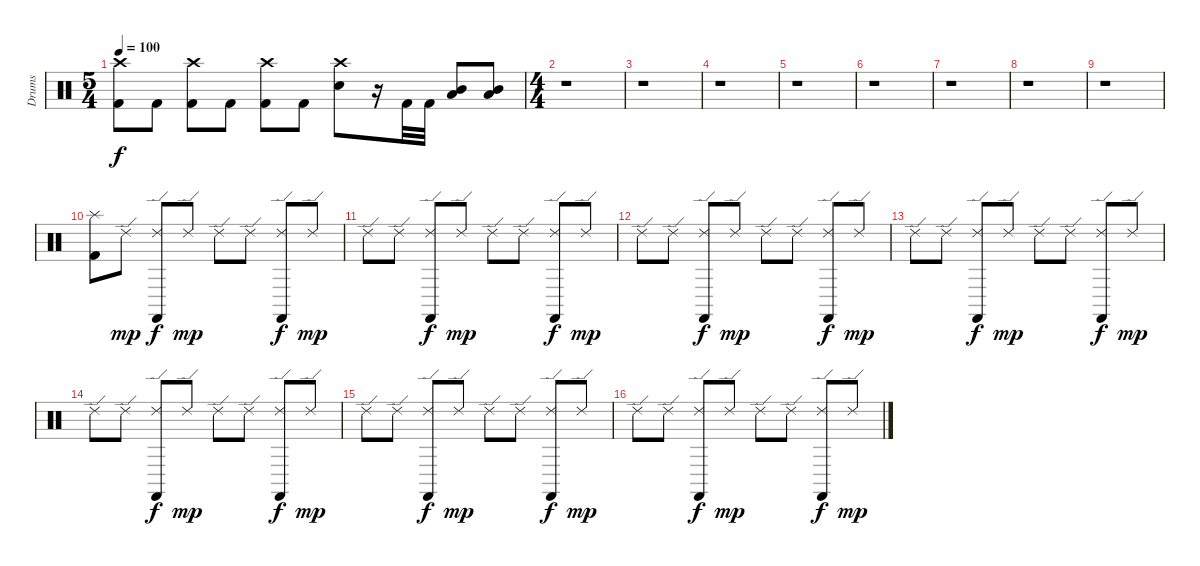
\track ("Drums" "Drums") {instrument percussion}
\staff {score}
\articulation defaults
\ts (5 4)
\tempo 100
\clef neutral
\ks c
("Crash high (hit)" "Kick (hit) 2").8{dy f} "Kick (hit) 2".8 ("Crash high (hit)" "Kick (hit) 2").8 "Kick (hit) 2".8 ("Crash high (hit)" "Kick (hit) 2").8 "Kick (hit) 2".8 ("Crash high (hit)" "Snare (hit) 2").8 r.16 "Kick (hit) 2".32 "Kick (hit) 2".32 ("Mid Tom (hit)" "Low Tom (hit)").8 ("Mid Tom (hit)" "Low Tom (hit)").8 |
\ts (4 4)
r.1 |
r.1 |
r.1 |
r.1 |
r.1 |
r.1 |
r.1 |
r.1 |
("Splash (hit)" "Kick (hit) 2").8 "Ride (edge) 2".8{dy mp} ("Ride (edge) 2" "Castanets (hit)").8{dy f} "Ride (edge) 2".8{dy mp} "Ride (edge) 2".8 "Ride (edge) 2".8 ("Ride (edge) 2" "Castanets (hit)").8{dy f} "Ride (edge) 2".8{dy mp} |
"Ride (edge) 2".8 "Ride (edge) 2".8 ("Ride (edge) 2" "Castanets (hit)").8{dy f} "Ride (edge) 2".8{dy mp} "Ride (edge) 2".8 "Ride (edge) 2".8 ("Ride (edge) 2" "Castanets (hit)").8{dy f} "Ride (edge) 2".8{dy mp} |
"Ride (edge) 2".8 "Ride (edge) 2".8 ("Ride (edge) 2" "Castanets (hit)").8{dy f} "Ride (edge) 2".8{dy mp} "Ride (edge) 2".8 "Ride (edge) 2".8 ("Ride (edge) 2" "Castanets (hit)").8{dy f} "Ride (edge) 2".8{dy mp} |
"Ride (edge) 2".8 "Ride (edge) 2".8 ("Ride (edge) 2" "Castanets (hit)").8{dy f} "Ride (edge) 2".8{dy mp} "Ride (edge) 2".8 "Ride (edge) 2".8 ("Ride (edge) 2" "Castanets (hit)").8{dy f} "Ride (edge) 2".8{dy mp} |
"Ride (edge) 2".8 "Ride (edge) 2".8 ("Ride (edge) 2" "Castanets (hit)").8{dy f} "Ride (edge) 2".8{dy mp} "Ride (edge) 2".8 "Ride (edge) 2".8 ("Ride (edge) 2" "Castanets (hit)").8{dy f} "Ride (edge) 2".8{dy mp} |
"Ride (edge) 2".8 "Ride (edge) 2".8 ("Ride (edge) 2" "Castanets (hit)").8{dy f} "Ride (edge) 2".8{dy mp} "Ride (edge) 2".8 "Ride (edge) 2".8 ("Ride (edge) 2" "Castanets (hit)").8{dy f} "Ride (edge) 2".8{dy mp} |
"Ride (edge) 2".8 "Ride (edge) 2".8 ("Ride (edge) 2" "Castanets (hit)").8{dy f} "Ride (edge) 2".8{dy mp} "Ride (edge) 2".8 "Ride (edge) 2".8 ("Ride (edge) 2" "Castanets (hit)").8{dy f} "Ride (edge) 2".8{dy mp}
